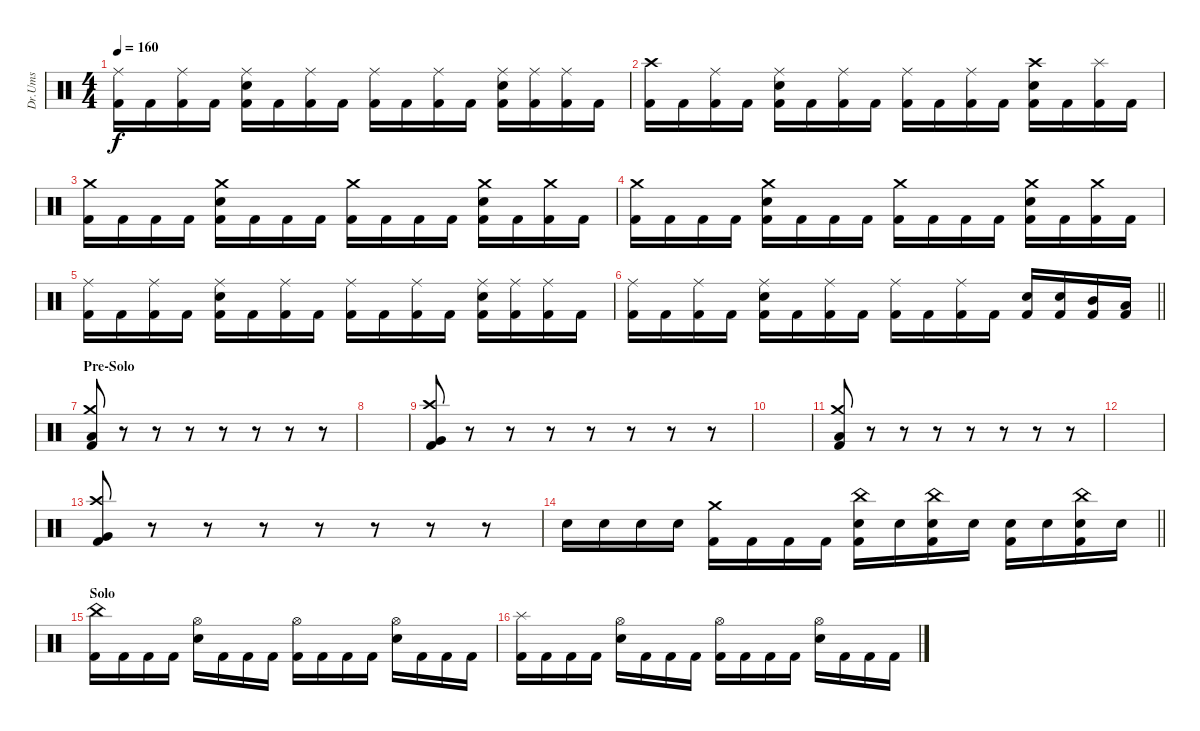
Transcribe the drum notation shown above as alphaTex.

\track ("Dr.Ums" "Dr.Ums") {instrument percussion}
\staff {score}
\articulation defaults
\ts (4 4)
\tempo 160
\clef neutral
\ks c
("Kick (hit) 2" "Ride (middle)").16{dy f} "Kick (hit) 2".16 ("Kick (hit) 2" "Ride (middle)").16 "Kick (hit) 2".16 ("Snare (hit) 2" "Ride (middle)" "Kick (hit) 2").16 "Kick (hit) 2".16 ("Kick (hit) 2" "Ride (middle)").16 "Kick (hit) 2".16 ("Kick (hit) 2" "Ride (middle)").16 "Kick (hit) 2".16 ("Kick (hit) 2" "Ride (middle)").16 "Kick (hit) 2".16 ("Snare (hit) 2" "Ride (middle)" "Kick (hit) 2").16 ("Kick (hit) 2" "Ride (middle)").16 ("Kick (hit) 2" "Ride (middle)").16 "Kick (hit) 2".16 |
("Kick (hit) 2" "Crash high (hit)").16 "Kick (hit) 2".16 ("Kick (hit) 2" "Ride (middle)").16 "Kick (hit) 2".16 ("Snare (hit) 2" "Ride (middle)" "Kick (hit) 2").16 "Kick (hit) 2".16 ("Kick (hit) 2" "Ride (middle)").16 "Kick (hit) 2".16 ("Kick (hit) 2" "Ride (middle)").16 "Kick (hit) 2".16 ("Kick (hit) 2" "Ride (middle)").16 "Kick (hit) 2".16 ("Snare (hit) 2" "Crash high (hit)" "Kick (hit) 2").16 "Kick (hit) 2".16 ("Kick (hit) 2" "Splash (hit)").16 "Kick (hit) 2".16 |
("Kick (hit) 2" "Crash medium (hit)").16 "Kick (hit) 2".16 "Kick (hit) 2".16 "Kick (hit) 2".16 ("Snare (hit) 2" "Crash medium (hit)" "Kick (hit) 2").16 "Kick (hit) 2".16 "Kick (hit) 2".16 "Kick (hit) 2".16 ("Kick (hit) 2" "Crash medium (hit)").16 "Kick (hit) 2".16 "Kick (hit) 2".16 "Kick (hit) 2".16 ("Snare (hit) 2" "Crash medium (hit)" "Kick (hit) 2").16 "Kick (hit) 2".16 ("Kick (hit) 2" "Crash medium (hit)").16 "Kick (hit) 2".16 |
("Kick (hit) 2" "Crash medium (hit)").16 "Kick (hit) 2".16 "Kick (hit) 2".16 "Kick (hit) 2".16 ("Snare (hit) 2" "Crash medium (hit)" "Kick (hit) 2").16 "Kick (hit) 2".16 "Kick (hit) 2".16 "Kick (hit) 2".16 ("Kick (hit) 2" "Crash medium (hit)").16 "Kick (hit) 2".16 "Kick (hit) 2".16 "Kick (hit) 2".16 ("Snare (hit) 2" "Crash medium (hit)" "Kick (hit) 2").16 "Kick (hit) 2".16 ("Kick (hit) 2" "Crash medium (hit)").16 "Kick (hit) 2".16 |
("Kick (hit) 2" "Ride (middle)").16 "Kick (hit) 2".16 ("Kick (hit) 2" "Ride (middle)").16 "Kick (hit) 2".16 ("Snare (hit) 2" "Ride (middle)" "Kick (hit) 2").16 "Kick (hit) 2".16 ("Kick (hit) 2" "Ride (middle)").16 "Kick (hit) 2".16 ("Kick (hit) 2" "Ride (middle)").16 "Kick (hit) 2".16 ("Kick (hit) 2" "Ride (middle)").16 "Kick (hit) 2".16 ("Snare (hit) 2" "Ride (middle)" "Kick (hit) 2").16 ("Kick (hit) 2" "Ride (middle)").16 ("Kick (hit) 2" "Ride (middle)").16 "Kick (hit) 2".16 |
\barLineRight lightlight
("Kick (hit) 2" "Ride (middle)").16 "Kick (hit) 2".16 ("Kick (hit) 2" "Ride (middle)").16 "Kick (hit) 2".16 ("Snare (hit) 2" "Ride (middle)" "Kick (hit) 2").16 "Kick (hit) 2".16 ("Kick (hit) 2" "Ride (middle)").16 "Kick (hit) 2".16 ("Kick (hit) 2" "Ride (middle)").16 "Kick (hit) 2".16 ("Kick (hit) 2" "Ride (middle)").16 "Kick (hit) 2".16 ("Snare (hit) 2" "Kick (hit) 2").16 ("Snare (hit) 2" "Kick (hit) 2").16 ("Kick (hit) 2" "Mid Tom (hit)").16 ("Kick (hit) 2" "Low Tom (hit)").16 |
\section ("" "Pre-Solo")
("Kick (hit) 2" "Crash medium (hit)" "Low Tom (hit)").8 r.8 r.8 r.8 r.8 r.8 r.8 r.8 |
|
("Kick (hit) 2" "Crash high (hit)" "Very Low Tom (hit)").8 r.8 r.8 r.8 r.8 r.8 r.8 r.8 |
|
("Kick (hit) 2" "Crash medium (hit)" "Low Tom (hit)").8 r.8 r.8 r.8 r.8 r.8 r.8 r.8 |
|
("Kick (hit) 2" "Crash high (hit)" "Very Low Tom (hit)").8 r.8 r.8 r.8 r.8 r.8 r.8 r.8 |
\barLineRight lightlight "Snare (hit) 2".16 "Snare (hit) 2".16 "Snare (hit) 2".16 "Snare (hit) 2".16
("Kick (hit) 2" "Crash medium (hit)").16 "Kick (hit) 2".16 "Kick (hit) 2".16 "Kick (hit) 2".16 ("Snare (hit) 2" "China (hit)" "Kick (hit) 2").16 "Snare (hit) 2".16 ("Snare (hit) 2" "China (hit)" "Kick (hit) 2").16 "Snare (hit) 2".16 ("Snare (hit) 2" "Kick (hit) 2").16 "Snare (hit) 2".16 ("Snare (hit) 2" "China (hit)" "Kick (hit) 2").16 "Snare (hit) 2".16 |
\section ("" "Solo")
("Kick (hit) 2" "China (hit)").16 "Kick (hit) 2".16 "Kick (hit) 2".16 "Kick (hit) 2".16 ("Snare (hit) 2" "Hi-Hat (open)").16 "Kick (hit) 2".16 "Kick (hit) 2".16 "Kick (hit) 2".16 ("Kick (hit) 2" "Hi-Hat (open)").16 "Kick (hit) 2".16 "Kick (hit) 2".16 "Kick (hit) 2".16 ("Snare (hit) 2" "Hi-Hat (open)").16 "Kick (hit) 2".16 "Kick (hit) 2".16 "Kick (hit) 2".16 |
("Kick (hit) 2" "Splash (hit)").16 "Kick (hit) 2".16 "Kick (hit) 2".16 "Kick (hit) 2".16 ("Snare (hit) 2" "Hi-Hat (open)").16 "Kick (hit) 2".16 "Kick (hit) 2".16 "Kick (hit) 2".16 ("Kick (hit) 2" "Hi-Hat (open)").16 "Kick (hit) 2".16 "Kick (hit) 2".16 "Kick (hit) 2".16 ("Snare (hit) 2" "Hi-Hat (open)").16 "Kick (hit) 2".16 "Kick (hit) 2".16 "Kick (hit) 2".16
